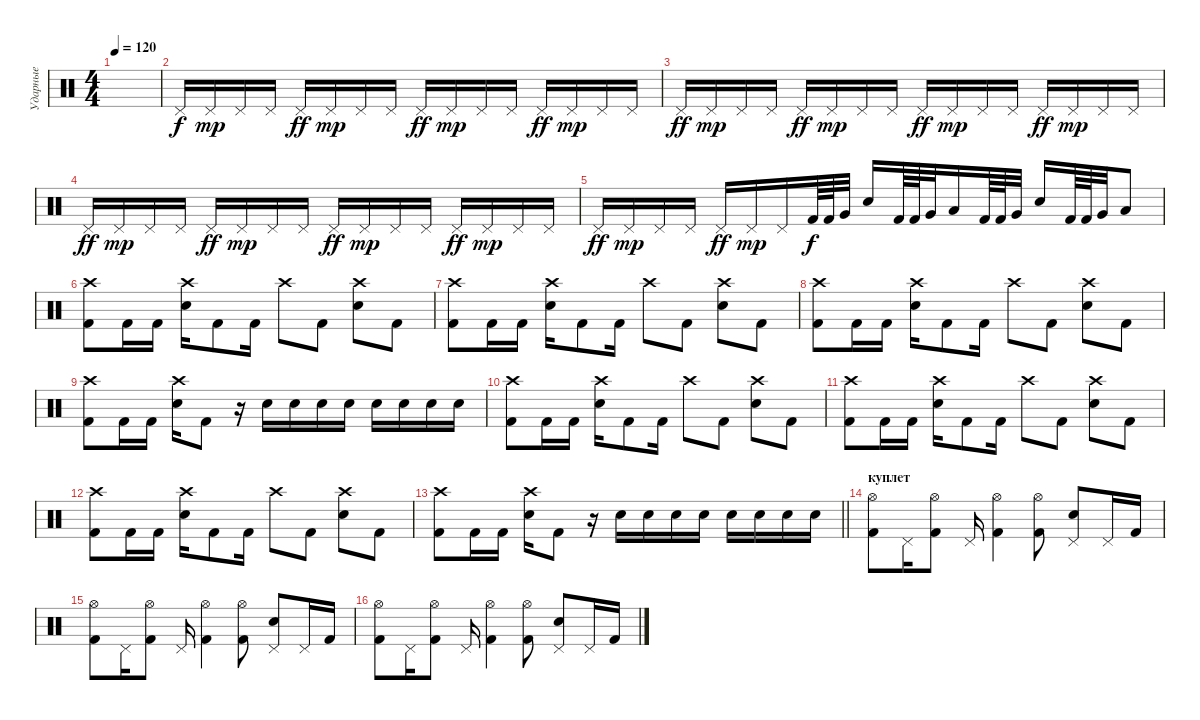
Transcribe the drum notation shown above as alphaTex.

\track ("Ударные" "Ударные") {instrument percussion}
\staff {score}
\articulation defaults
\ts (4 4)
\tempo 120
\clef neutral
\ks c
|
"Pedal Hi-Hat (hit)".16 "Pedal Hi-Hat (hit)".16{dy mp} "Pedal Hi-Hat (hit)".16 "Pedal Hi-Hat (hit)".16 "Pedal Hi-Hat (hit)".16{dy ff} "Pedal Hi-Hat (hit)".16{dy mp} "Pedal Hi-Hat (hit)".16 "Pedal Hi-Hat (hit)".16 "Pedal Hi-Hat (hit)".16{dy ff} "Pedal Hi-Hat (hit)".16{dy mp} "Pedal Hi-Hat (hit)".16 "Pedal Hi-Hat (hit)".16 "Pedal Hi-Hat (hit)".16{dy ff} "Pedal Hi-Hat (hit)".16{dy mp} "Pedal Hi-Hat (hit)".16 "Pedal Hi-Hat (hit)".16 |
"Pedal Hi-Hat (hit)".16{dy ff} "Pedal Hi-Hat (hit)".16{dy mp} "Pedal Hi-Hat (hit)".16 "Pedal Hi-Hat (hit)".16 "Pedal Hi-Hat (hit)".16{dy ff} "Pedal Hi-Hat (hit)".16{dy mp} "Pedal Hi-Hat (hit)".16 "Pedal Hi-Hat (hit)".16 "Pedal Hi-Hat (hit)".16{dy ff} "Pedal Hi-Hat (hit)".16{dy mp} "Pedal Hi-Hat (hit)".16 "Pedal Hi-Hat (hit)".16 "Pedal Hi-Hat (hit)".16{dy ff} "Pedal Hi-Hat (hit)".16{dy mp} "Pedal Hi-Hat (hit)".16 "Pedal Hi-Hat (hit)".16 |
"Pedal Hi-Hat (hit)".16{dy ff} "Pedal Hi-Hat (hit)".16{dy mp} "Pedal Hi-Hat (hit)".16 "Pedal Hi-Hat (hit)".16 "Pedal Hi-Hat (hit)".16{dy ff} "Pedal Hi-Hat (hit)".16{dy mp} "Pedal Hi-Hat (hit)".16 "Pedal Hi-Hat (hit)".16 "Pedal Hi-Hat (hit)".16{dy ff} "Pedal Hi-Hat (hit)".16{dy mp} "Pedal Hi-Hat (hit)".16 "Pedal Hi-Hat (hit)".16 "Pedal Hi-Hat (hit)".16{dy ff} "Pedal Hi-Hat (hit)".16{dy mp} "Pedal Hi-Hat (hit)".16 "Pedal Hi-Hat (hit)".16 |
"Pedal Hi-Hat (hit)".16{dy ff} "Pedal Hi-Hat (hit)".16{dy mp} "Pedal Hi-Hat (hit)".16 "Pedal Hi-Hat (hit)".16 "Pedal Hi-Hat (hit)".16{dy ff} "Pedal Hi-Hat (hit)".16{dy mp} "Pedal Hi-Hat (hit)".16 "Kick (hit) 2".64{dy f} "Kick (hit) 2".64 "Very Low Tom (hit)".32 "Electric Snare (hit)".16 "Kick (hit) 2".64 "Kick (hit) 2".64 "Very Low Tom (hit)".32 "Low Tom (hit)".16 "Kick (hit) 2".64 "Kick (hit) 2".64 "Very Low Tom (hit)".32 "Electric Snare (hit)".16 "Kick (hit) 2".64 "Kick (hit) 2".64 "Very Low Tom (hit)".32 "Low Tom (hit)".8 |
("Crash high (hit)" "Kick (hit) 2").8 "Kick (hit) 2".16 "Kick (hit) 2".16 ("Crash high (hit)" "Electric Snare (hit)").16 "Kick (hit) 2".8 "Kick (hit) 2".16 "Crash high (hit)".8 "Kick (hit) 2".8 ("Crash high (hit)" "Electric Snare (hit)").8 "Kick (hit) 2".8 |
("Crash high (hit)" "Kick (hit) 2").8 "Kick (hit) 2".16 "Kick (hit) 2".16 ("Crash high (hit)" "Electric Snare (hit)").16 "Kick (hit) 2".8 "Kick (hit) 2".16 "Crash high (hit)".8 "Kick (hit) 2".8 ("Crash high (hit)" "Electric Snare (hit)").8 "Kick (hit) 2".8 |
("Crash high (hit)" "Kick (hit) 2").8 "Kick (hit) 2".16 "Kick (hit) 2".16 ("Crash high (hit)" "Electric Snare (hit)").16 "Kick (hit) 2".8 "Kick (hit) 2".16 "Crash high (hit)".8 "Kick (hit) 2".8 ("Crash high (hit)" "Electric Snare (hit)").8 "Kick (hit) 2".8 |
("Crash high (hit)" "Kick (hit) 2").8 "Kick (hit) 2".16 "Kick (hit) 2".16 ("Crash high (hit)" "Electric Snare (hit)").16 "Kick (hit) 2".8 r.16 "Electric Snare (hit)".16 "Electric Snare (hit)".16 "Electric Snare (hit)".16 "Electric Snare (hit)".16 "Electric Snare (hit)".16 "Electric Snare (hit)".16 "Electric Snare (hit)".16 "Electric Snare (hit)".16 |
("Crash high (hit)" "Kick (hit) 2").8 "Kick (hit) 2".16 "Kick (hit) 2".16 ("Crash high (hit)" "Electric Snare (hit)").16 "Kick (hit) 2".8 "Kick (hit) 2".16 "Crash high (hit)".8 "Kick (hit) 2".8 ("Crash high (hit)" "Electric Snare (hit)").8 "Kick (hit) 2".8 |
("Crash high (hit)" "Kick (hit) 2").8 "Kick (hit) 2".16 "Kick (hit) 2".16 ("Crash high (hit)" "Electric Snare (hit)").16 "Kick (hit) 2".8 "Kick (hit) 2".16 "Crash high (hit)".8 "Kick (hit) 2".8 ("Crash high (hit)" "Electric Snare (hit)").8 "Kick (hit) 2".8 |
("Crash high (hit)" "Kick (hit) 2").8 "Kick (hit) 2".16 "Kick (hit) 2".16 ("Crash high (hit)" "Electric Snare (hit)").16 "Kick (hit) 2".8 "Kick (hit) 2".16 "Crash high (hit)".8 "Kick (hit) 2".8 ("Crash high (hit)" "Electric Snare (hit)").8 "Kick (hit) 2".8 |
\barLineRight lightlight
("Crash high (hit)" "Kick (hit) 2").8 "Kick (hit) 2".16 "Kick (hit) 2".16 ("Crash high (hit)" "Electric Snare (hit)").16 "Kick (hit) 2".8 r.16 "Electric Snare (hit)".16 "Electric Snare (hit)".16 "Electric Snare (hit)".16 "Electric Snare (hit)".16 "Electric Snare (hit)".16 "Electric Snare (hit)".16 "Electric Snare (hit)".16 "Electric Snare (hit)".16 |
\section ("" "куплет")
("Hi-Hat (open)" "Kick (hit) 2").8 "Pedal Hi-Hat (hit)".16 ("Hi-Hat (open)" "Kick (hit) 2").8 "Pedal Hi-Hat (hit)".16 ("Hi-Hat (open)" "Kick (hit) 2").4 ("Hi-Hat (open)" "Kick (hit) 2").8 ("Pedal Hi-Hat (hit)" "Electric Snare (hit)").8 "Pedal Hi-Hat (hit)".16 "Kick (hit) 2".16 |
("Hi-Hat (open)" "Kick (hit) 2").8 "Pedal Hi-Hat (hit)".16 ("Hi-Hat (open)" "Kick (hit) 2").8 "Pedal Hi-Hat (hit)".16 ("Hi-Hat (open)" "Kick (hit) 2").4 ("Hi-Hat (open)" "Kick (hit) 2").8 ("Pedal Hi-Hat (hit)" "Electric Snare (hit)").8 "Pedal Hi-Hat (hit)".16 "Kick (hit) 2".16 |
("Hi-Hat (open)" "Kick (hit) 2").8 "Pedal Hi-Hat (hit)".16 ("Hi-Hat (open)" "Kick (hit) 2").8 "Pedal Hi-Hat (hit)".16 ("Hi-Hat (open)" "Kick (hit) 2").4 ("Hi-Hat (open)" "Kick (hit) 2").8 ("Pedal Hi-Hat (hit)" "Electric Snare (hit)").8 "Pedal Hi-Hat (hit)".16 "Kick (hit) 2".16
